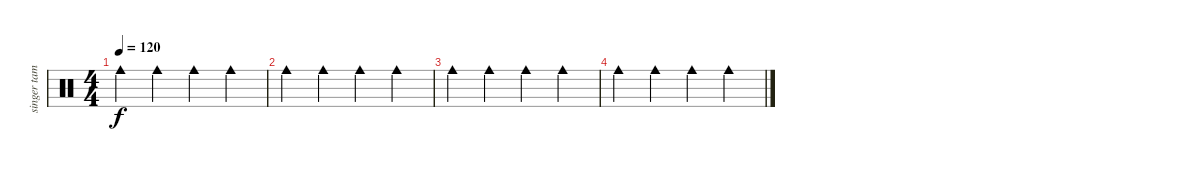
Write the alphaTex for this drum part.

\track ("singer tambo" "singer tam") {instrument percussion}
\staff {score}
\articulation defaults
\ts (4 4)
\tempo 120
\clef neutral
\ks c "Cowbell medium (hit)".4{dy f} "Cowbell medium (hit)".4 "Cowbell medium (hit)".4 "Cowbell medium (hit)".4
|
"Cowbell medium (hit)".4 "Cowbell medium (hit)".4 "Cowbell medium (hit)".4 "Cowbell medium (hit)".4 |
"Cowbell medium (hit)".4 "Cowbell medium (hit)".4 "Cowbell medium (hit)".4 "Cowbell medium (hit)".4 |
"Cowbell medium (hit)".4 "Cowbell medium (hit)".4 "Cowbell medium (hit)".4 "Cowbell medium (hit)".4
